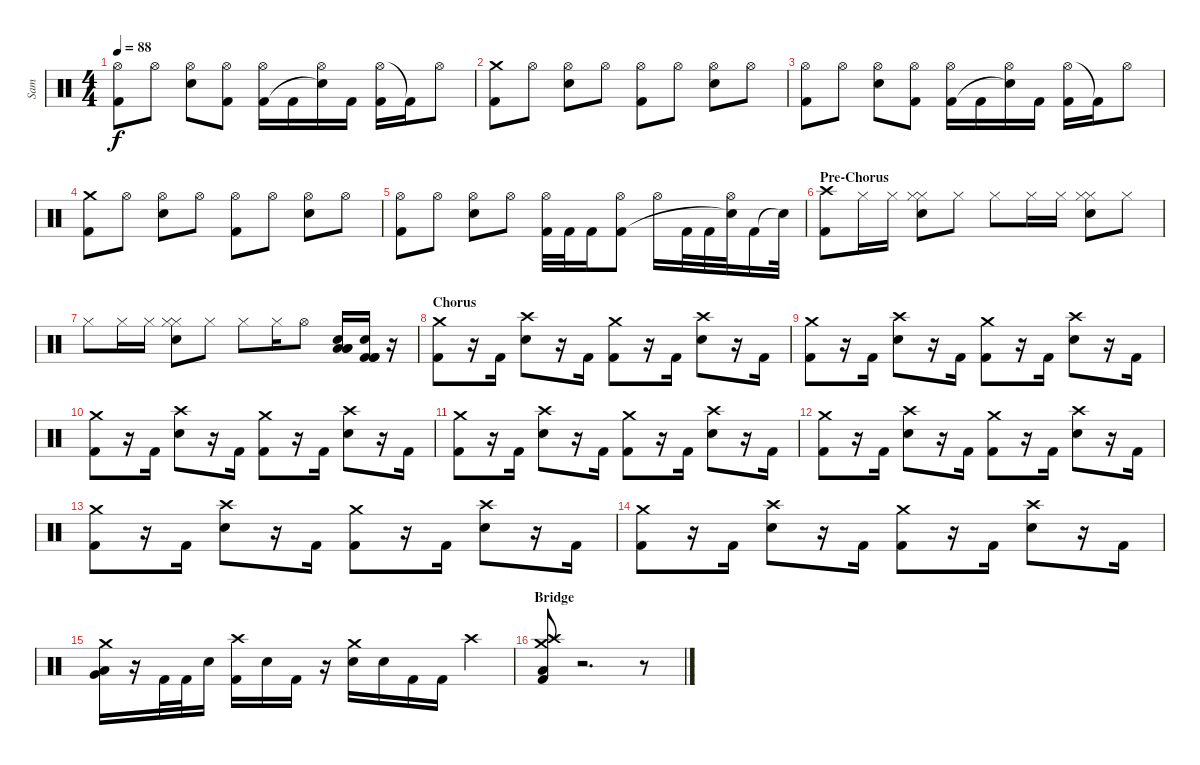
\track ("Sam" "Sam") {instrument percussion}
\staff {score}
\articulation defaults
\ts (4 4)
\tempo 88
\clef neutral
\ks c
("Hi-Hat (open)" "Kick (hit) 2").8{dy f} "Hi-Hat (open)".8 ("Hi-Hat (open)" "Electric Snare (hit)").8 ("Hi-Hat (open)" "Kick (hit) 2").8 ("Hi-Hat (open)" "Kick (hit) 2").16 "Kick (hit) 2".16 ("Hi-Hat (open)" "Snare (hit)"{t}).16 "Kick (hit) 2".16 ("Hi-Hat (open)" "Kick (hit) 2").16 "Kick (hit) 2"{t}.16 "Hi-Hat (open)".8 |
("Crash medium (hit)" "Kick (hit) 2").8 "Hi-Hat (open)".8 ("Hi-Hat (open)" "Electric Snare (hit)").8 "Hi-Hat (open)".8 ("Hi-Hat (open)" "Kick (hit) 2").8 "Hi-Hat (open)".8 ("Hi-Hat (open)" "Electric Snare (hit)").8 "Hi-Hat (open)".8 |
("Hi-Hat (open)" "Kick (hit) 2").8 "Hi-Hat (open)".8 ("Hi-Hat (open)" "Electric Snare (hit)").8 ("Hi-Hat (open)" "Kick (hit) 2").8 ("Hi-Hat (open)" "Kick (hit) 2").16 "Kick (hit) 2".16 ("Hi-Hat (open)" "Snare (hit)"{t}).16 "Kick (hit) 2".16 ("Hi-Hat (open)" "Kick (hit) 2").16 "Kick (hit) 2"{t}.16 "Hi-Hat (open)".8 |
("Crash medium (hit)" "Kick (hit) 2").8 "Hi-Hat (open)".8 ("Hi-Hat (open)" "Electric Snare (hit)").8 "Hi-Hat (open)".8 ("Hi-Hat (open)" "Kick (hit) 2").8 "Hi-Hat (open)".8 ("Hi-Hat (open)" "Electric Snare (hit)").8 "Hi-Hat (open)".8 |
("Hi-Hat (open)" "Kick (hit) 2").8 "Hi-Hat (open)".8 ("Hi-Hat (open)" "Electric Snare (hit)").8 "Hi-Hat (open)".8 ("Hi-Hat (open)" "Kick (hit) 2").32 "Kick (hit) 2".32 "Kick (hit) 2".16 ("Hi-Hat (open)" "Kick (hit) 2").8 "Hi-Hat (open)".16 "Kick (hit) 2".32 "Kick (hit) 2".32 ("Hi-Hat (open)" "Snare (hit)"{t}).32 "Kick (hit) 2".16 "Snare (hit)"{t}.32 |
\section ("" "Pre-Chorus")
("Crash high (hit)" "Kick (hit) 2").8 "Hi-Hat (closed)".16{volume 8} "Hi-Hat (closed)".16 ("Hi-Hat (closed)" "Hi-Hat (closed)" "Electric Snare (hit)").8 "Hi-Hat (closed)".8 "Hi-Hat (closed)".8 "Hi-Hat (closed)".16 "Hi-Hat (closed)".16 ("Hi-Hat (closed)" "Hi-Hat (closed)" "Electric Snare (hit)").8 "Hi-Hat (closed)".8 |
"Hi-Hat (closed)".8 "Hi-Hat (closed)".16 "Hi-Hat (closed)".16 ("Hi-Hat (closed)" "Hi-Hat (closed)" "Electric Snare (hit)").8 "Hi-Hat (closed)".8 "Hi-Hat (closed)".8 "Hi-Hat (closed)".16 "Hi-Hat (open)".8{volume 16} ("Electric Snare (hit)" "Low Floor Tom (hit)" "Low Floor Tom (hit)" "Low Floor Tom (hit)").16 ("Electric Snare (hit)" "Kick (hit) 2" "Kick (hit) 2" "Kick (hit) 2").16 r.16 |
\section ("" "Chorus")
("Crash medium (hit)" "Kick (hit) 2").8 r.16 "Kick (hit) 2".16 ("Crash high (hit)" "Electric Snare (hit)").8 r.16 "Kick (hit) 2".16 ("Crash medium (hit)" "Kick (hit) 2").8 r.16 "Kick (hit) 2".16 ("Crash high (hit)" "Electric Snare (hit)").8 r.16 "Kick (hit) 2".16 |
("Crash medium (hit)" "Kick (hit) 2").8 r.16 "Kick (hit) 2".16 ("Crash high (hit)" "Electric Snare (hit)").8 r.16 "Kick (hit) 2".16 ("Crash medium (hit)" "Kick (hit) 2").8 r.16 "Kick (hit) 2".16 ("Crash high (hit)" "Electric Snare (hit)").8 r.16 "Kick (hit) 2".16 |
("Crash medium (hit)" "Kick (hit) 2").8 r.16 "Kick (hit) 2".16 ("Crash high (hit)" "Electric Snare (hit)").8 r.16 "Kick (hit) 2".16 ("Crash medium (hit)" "Kick (hit) 2").8 r.16 "Kick (hit) 2".16 ("Crash high (hit)" "Electric Snare (hit)").8 r.16 "Kick (hit) 2".16 |
("Crash medium (hit)" "Kick (hit) 2").8 r.16 "Kick (hit) 2".16 ("Crash high (hit)" "Electric Snare (hit)").8 r.16 "Kick (hit) 2".16 ("Crash medium (hit)" "Kick (hit) 2").8 r.16 "Kick (hit) 2".16 ("Crash high (hit)" "Electric Snare (hit)").8 r.16 "Kick (hit) 2".16 |
("Crash medium (hit)" "Kick (hit) 2").8 r.16 "Kick (hit) 2".16 ("Crash high (hit)" "Electric Snare (hit)").8 r.16 "Kick (hit) 2".16 ("Crash medium (hit)" "Kick (hit) 2").8 r.16 "Kick (hit) 2".16 ("Crash high (hit)" "Electric Snare (hit)").8 r.16 "Kick (hit) 2".16 |
("Crash medium (hit)" "Kick (hit) 2").8 r.16 "Kick (hit) 2".16 ("Crash high (hit)" "Electric Snare (hit)").8 r.16 "Kick (hit) 2".16 ("Crash medium (hit)" "Kick (hit) 2").8 r.16 "Kick (hit) 2".16 ("Crash high (hit)" "Electric Snare (hit)").8 r.16 "Kick (hit) 2".16 |
("Crash medium (hit)" "Kick (hit) 2").8 r.16 "Kick (hit) 2".16 ("Crash high (hit)" "Electric Snare (hit)").8 r.16 "Kick (hit) 2".16 ("Crash medium (hit)" "Kick (hit) 2").8 r.16 "Kick (hit) 2".16 ("Crash high (hit)" "Electric Snare (hit)").8 r.16 "Kick (hit) 2".16 |
("Crash medium (hit)" "Very Low Tom (hit)" "Low Tom (hit)").16 r.16 "Kick (hit) 2".32 "Kick (hit) 2".32 "Electric Snare (hit)".16 ("Crash high (hit)" "Kick (hit) 2").16 "Electric Snare (hit)".16 "Kick (hit) 2".16 r.16 ("Crash medium (hit)" "Electric Snare (hit)").16 "Electric Snare (hit)".16 "Kick (hit) 2".16 "Kick (hit) 2".16 "Crash high (hit)".4 |
\section ("" "Bridge")
("Crash medium (hit)" "Crash high (hit)" "Low Tom (hit)" "Kick (hit) 2").8 r.2{d} r.8
